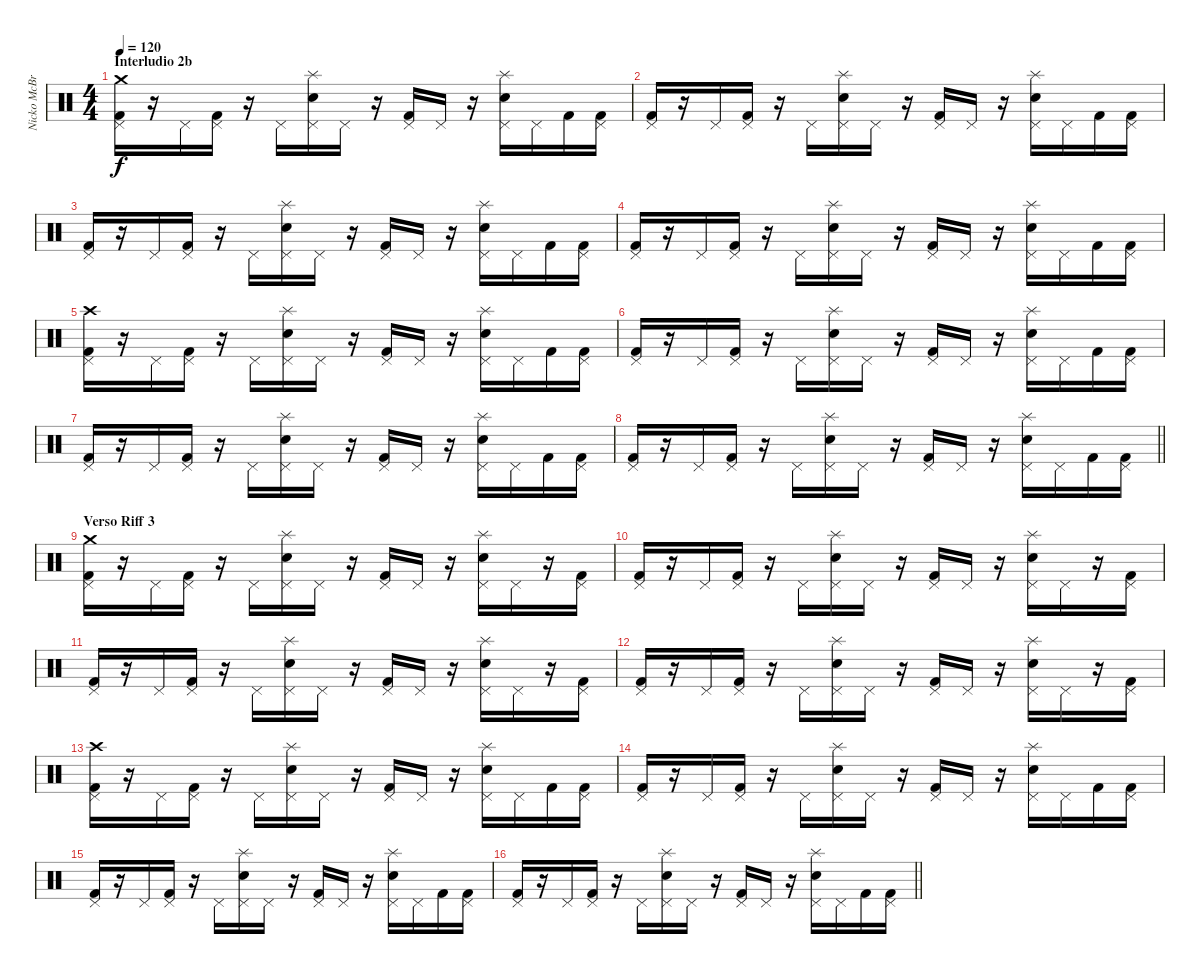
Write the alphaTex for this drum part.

\track ("Nicko McBrain" "Nicko McBr") {instrument percussion}
\staff {score}
\articulation defaults
\ts (4 4)
\section ("" "Interludio 2b")
\tempo 120
\clef neutral
\ks c
("Kick (hit) 2" "Pedal Hi-Hat (hit)" "Crash medium (hit)").16{dy f} r.16 "Pedal Hi-Hat (hit)".16 ("Kick (hit) 2" "Pedal Hi-Hat (hit)").16 r.16 "Pedal Hi-Hat (hit)".16 ("Snare (hit) 2" "Pedal Hi-Hat (hit)" "Splash (hit)").16 "Pedal Hi-Hat (hit)".16 r.16 ("Kick (hit) 2" "Pedal Hi-Hat (hit)").16 "Pedal Hi-Hat (hit)".16 r.16 ("Snare (hit) 2" "Pedal Hi-Hat (hit)" "Splash (hit)").16 "Pedal Hi-Hat (hit)".16 "Kick (hit) 2".16 ("Kick (hit) 2" "Pedal Hi-Hat (hit)").16 |
("Kick (hit) 2" "Pedal Hi-Hat (hit)").16 r.16 "Pedal Hi-Hat (hit)".16 ("Kick (hit) 2" "Pedal Hi-Hat (hit)").16 r.16 "Pedal Hi-Hat (hit)".16 ("Snare (hit) 2" "Pedal Hi-Hat (hit)" "Splash (hit)").16 "Pedal Hi-Hat (hit)".16 r.16 ("Kick (hit) 2" "Pedal Hi-Hat (hit)").16 "Pedal Hi-Hat (hit)".16 r.16 ("Snare (hit) 2" "Pedal Hi-Hat (hit)" "Splash (hit)").16 "Pedal Hi-Hat (hit)".16 "Kick (hit) 2".16 ("Kick (hit) 2" "Pedal Hi-Hat (hit)").16 |
("Kick (hit) 2" "Pedal Hi-Hat (hit)").16 r.16 "Pedal Hi-Hat (hit)".16 ("Kick (hit) 2" "Pedal Hi-Hat (hit)").16 r.16 "Pedal Hi-Hat (hit)".16 ("Snare (hit) 2" "Pedal Hi-Hat (hit)" "Splash (hit)").16 "Pedal Hi-Hat (hit)".16 r.16 ("Kick (hit) 2" "Pedal Hi-Hat (hit)").16 "Pedal Hi-Hat (hit)".16 r.16 ("Snare (hit) 2" "Pedal Hi-Hat (hit)" "Splash (hit)").16 "Pedal Hi-Hat (hit)".16 "Kick (hit) 2".16 ("Kick (hit) 2" "Pedal Hi-Hat (hit)").16 |
("Kick (hit) 2" "Pedal Hi-Hat (hit)").16 r.16 "Pedal Hi-Hat (hit)".16 ("Kick (hit) 2" "Pedal Hi-Hat (hit)").16 r.16 "Pedal Hi-Hat (hit)".16 ("Snare (hit) 2" "Pedal Hi-Hat (hit)" "Splash (hit)").16 "Pedal Hi-Hat (hit)".16 r.16 ("Kick (hit) 2" "Pedal Hi-Hat (hit)").16 "Pedal Hi-Hat (hit)".16 r.16 ("Snare (hit) 2" "Pedal Hi-Hat (hit)" "Splash (hit)").16 "Pedal Hi-Hat (hit)".16 "Kick (hit) 2".16 ("Kick (hit) 2" "Pedal Hi-Hat (hit)").16 |
("Kick (hit) 2" "Pedal Hi-Hat (hit)" "Crash high (hit)").16 r.16 "Pedal Hi-Hat (hit)".16 ("Kick (hit) 2" "Pedal Hi-Hat (hit)").16 r.16 "Pedal Hi-Hat (hit)".16 ("Snare (hit) 2" "Pedal Hi-Hat (hit)" "Splash (hit)").16 "Pedal Hi-Hat (hit)".16 r.16 ("Kick (hit) 2" "Pedal Hi-Hat (hit)").16 "Pedal Hi-Hat (hit)".16 r.16 ("Snare (hit) 2" "Pedal Hi-Hat (hit)" "Splash (hit)").16 "Pedal Hi-Hat (hit)".16 "Kick (hit) 2".16 ("Kick (hit) 2" "Pedal Hi-Hat (hit)").16 |
("Kick (hit) 2" "Pedal Hi-Hat (hit)").16 r.16 "Pedal Hi-Hat (hit)".16 ("Kick (hit) 2" "Pedal Hi-Hat (hit)").16 r.16 "Pedal Hi-Hat (hit)".16 ("Snare (hit) 2" "Pedal Hi-Hat (hit)" "Splash (hit)").16 "Pedal Hi-Hat (hit)".16 r.16 ("Kick (hit) 2" "Pedal Hi-Hat (hit)").16 "Pedal Hi-Hat (hit)".16 r.16 ("Snare (hit) 2" "Pedal Hi-Hat (hit)" "Splash (hit)").16 "Pedal Hi-Hat (hit)".16 "Kick (hit) 2".16 ("Kick (hit) 2" "Pedal Hi-Hat (hit)").16 |
("Kick (hit) 2" "Pedal Hi-Hat (hit)").16 r.16 "Pedal Hi-Hat (hit)".16 ("Kick (hit) 2" "Pedal Hi-Hat (hit)").16 r.16 "Pedal Hi-Hat (hit)".16 ("Snare (hit) 2" "Pedal Hi-Hat (hit)" "Splash (hit)").16 "Pedal Hi-Hat (hit)".16 r.16 ("Kick (hit) 2" "Pedal Hi-Hat (hit)").16 "Pedal Hi-Hat (hit)".16 r.16 ("Snare (hit) 2" "Pedal Hi-Hat (hit)" "Splash (hit)").16 "Pedal Hi-Hat (hit)".16 "Kick (hit) 2".16 ("Kick (hit) 2" "Pedal Hi-Hat (hit)").16 |
\barLineRight lightlight
("Kick (hit) 2" "Pedal Hi-Hat (hit)").16 r.16 "Pedal Hi-Hat (hit)".16 ("Kick (hit) 2" "Pedal Hi-Hat (hit)").16 r.16 "Pedal Hi-Hat (hit)".16 ("Snare (hit) 2" "Pedal Hi-Hat (hit)" "Splash (hit)").16 "Pedal Hi-Hat (hit)".16 r.16 ("Kick (hit) 2" "Pedal Hi-Hat (hit)").16 "Pedal Hi-Hat (hit)".16 r.16 ("Snare (hit) 2" "Pedal Hi-Hat (hit)" "Splash (hit)").16 "Pedal Hi-Hat (hit)".16 "Kick (hit) 2".16 ("Kick (hit) 2" "Pedal Hi-Hat (hit)").16 |
\section ("" "Verso Riff 3")
("Kick (hit) 2" "Pedal Hi-Hat (hit)" "Crash medium (hit)").16 r.16 "Pedal Hi-Hat (hit)".16 ("Kick (hit) 2" "Pedal Hi-Hat (hit)").16 r.16 "Pedal Hi-Hat (hit)".16 ("Snare (hit) 2" "Pedal Hi-Hat (hit)" "Splash (hit)").16 "Pedal Hi-Hat (hit)".16 r.16 ("Kick (hit) 2" "Pedal Hi-Hat (hit)").16 "Pedal Hi-Hat (hit)".16 r.16 ("Snare (hit) 2" "Pedal Hi-Hat (hit)" "Splash (hit)").16 "Pedal Hi-Hat (hit)".16 r.16 ("Kick (hit) 2" "Pedal Hi-Hat (hit)").16 |
("Kick (hit) 2" "Pedal Hi-Hat (hit)").16 r.16 "Pedal Hi-Hat (hit)".16 ("Kick (hit) 2" "Pedal Hi-Hat (hit)").16 r.16 "Pedal Hi-Hat (hit)".16 ("Snare (hit) 2" "Pedal Hi-Hat (hit)" "Splash (hit)").16 "Pedal Hi-Hat (hit)".16 r.16 ("Kick (hit) 2" "Pedal Hi-Hat (hit)").16 "Pedal Hi-Hat (hit)".16 r.16 ("Snare (hit) 2" "Pedal Hi-Hat (hit)" "Splash (hit)").16 "Pedal Hi-Hat (hit)".16 r.16 ("Kick (hit) 2" "Pedal Hi-Hat (hit)").16 |
("Kick (hit) 2" "Pedal Hi-Hat (hit)").16 r.16 "Pedal Hi-Hat (hit)".16 ("Kick (hit) 2" "Pedal Hi-Hat (hit)").16 r.16 "Pedal Hi-Hat (hit)".16 ("Snare (hit) 2" "Pedal Hi-Hat (hit)" "Splash (hit)").16 "Pedal Hi-Hat (hit)".16 r.16 ("Kick (hit) 2" "Pedal Hi-Hat (hit)").16 "Pedal Hi-Hat (hit)".16 r.16 ("Snare (hit) 2" "Pedal Hi-Hat (hit)" "Splash (hit)").16 "Pedal Hi-Hat (hit)".16 r.16 ("Kick (hit) 2" "Pedal Hi-Hat (hit)").16 |
("Kick (hit) 2" "Pedal Hi-Hat (hit)").16 r.16 "Pedal Hi-Hat (hit)".16 ("Kick (hit) 2" "Pedal Hi-Hat (hit)").16 r.16 "Pedal Hi-Hat (hit)".16 ("Snare (hit) 2" "Pedal Hi-Hat (hit)" "Splash (hit)").16 "Pedal Hi-Hat (hit)".16 r.16 ("Kick (hit) 2" "Pedal Hi-Hat (hit)").16 "Pedal Hi-Hat (hit)".16 r.16 ("Snare (hit) 2" "Pedal Hi-Hat (hit)" "Splash (hit)").16 "Pedal Hi-Hat (hit)".16 r.16 ("Kick (hit) 2" "Pedal Hi-Hat (hit)").16 |
("Kick (hit) 2" "Pedal Hi-Hat (hit)" "Crash high (hit)").16 r.16 "Pedal Hi-Hat (hit)".16 ("Kick (hit) 2" "Pedal Hi-Hat (hit)").16 r.16 "Pedal Hi-Hat (hit)".16 ("Snare (hit) 2" "Pedal Hi-Hat (hit)" "Splash (hit)").16 "Pedal Hi-Hat (hit)".16 r.16 ("Kick (hit) 2" "Pedal Hi-Hat (hit)").16 "Pedal Hi-Hat (hit)".16 r.16 ("Snare (hit) 2" "Pedal Hi-Hat (hit)" "Splash (hit)").16 "Pedal Hi-Hat (hit)".16 "Kick (hit) 2".16 ("Kick (hit) 2" "Pedal Hi-Hat (hit)").16 |
("Kick (hit) 2" "Pedal Hi-Hat (hit)").16 r.16 "Pedal Hi-Hat (hit)".16 ("Kick (hit) 2" "Pedal Hi-Hat (hit)").16 r.16 "Pedal Hi-Hat (hit)".16 ("Snare (hit) 2" "Pedal Hi-Hat (hit)" "Splash (hit)").16 "Pedal Hi-Hat (hit)".16 r.16 ("Kick (hit) 2" "Pedal Hi-Hat (hit)").16 "Pedal Hi-Hat (hit)".16 r.16 ("Snare (hit) 2" "Pedal Hi-Hat (hit)" "Splash (hit)").16 "Pedal Hi-Hat (hit)".16 "Kick (hit) 2".16 ("Kick (hit) 2" "Pedal Hi-Hat (hit)").16 |
("Kick (hit) 2" "Pedal Hi-Hat (hit)").16 r.16 "Pedal Hi-Hat (hit)".16 ("Kick (hit) 2" "Pedal Hi-Hat (hit)").16 r.16 "Pedal Hi-Hat (hit)".16 ("Snare (hit) 2" "Pedal Hi-Hat (hit)" "Splash (hit)").16 "Pedal Hi-Hat (hit)".16 r.16 ("Kick (hit) 2" "Pedal Hi-Hat (hit)").16 "Pedal Hi-Hat (hit)".16 r.16 ("Snare (hit) 2" "Pedal Hi-Hat (hit)" "Splash (hit)").16 "Pedal Hi-Hat (hit)".16 "Kick (hit) 2".16 ("Kick (hit) 2" "Pedal Hi-Hat (hit)").16 |
\barLineRight lightlight
("Kick (hit) 2" "Pedal Hi-Hat (hit)").16 r.16 "Pedal Hi-Hat (hit)".16 ("Kick (hit) 2" "Pedal Hi-Hat (hit)").16 r.16 "Pedal Hi-Hat (hit)".16 ("Snare (hit) 2" "Pedal Hi-Hat (hit)" "Splash (hit)").16 "Pedal Hi-Hat (hit)".16 r.16 ("Kick (hit) 2" "Pedal Hi-Hat (hit)").16 "Pedal Hi-Hat (hit)".16 r.16 ("Snare (hit) 2" "Pedal Hi-Hat (hit)" "Splash (hit)").16 "Pedal Hi-Hat (hit)".16 "Kick (hit) 2".16 ("Kick (hit) 2" "Pedal Hi-Hat (hit)").16
